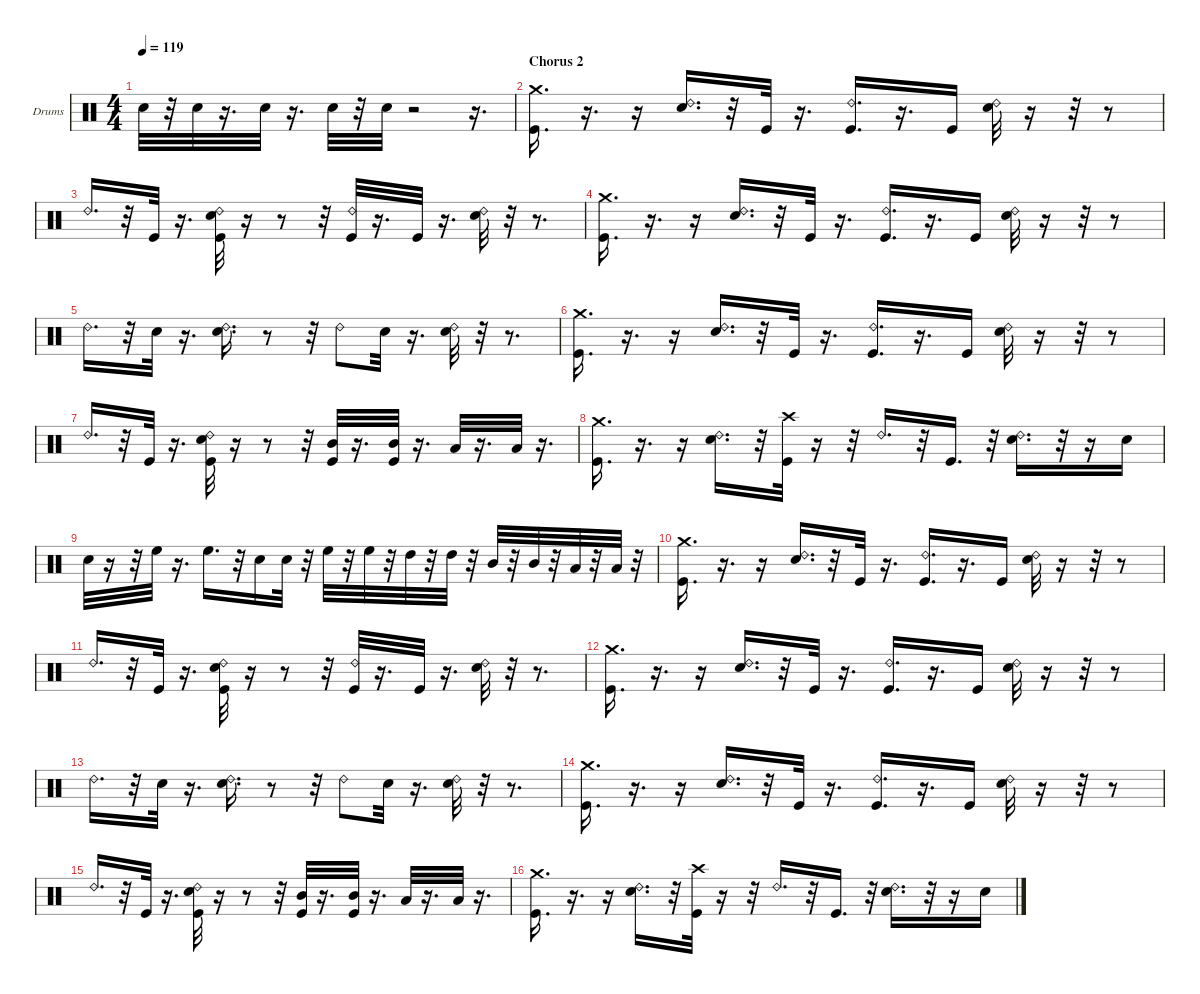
\hideDynamics
\bracketExtendMode groupsimilarinstruments
\firstSystemTrackNameOrientation horizontal
\otherSystemsTrackNameOrientation horizontal
\track ("Drums" "Drums") {instrument percussion}
\staff {score}
\articulation defaults
\ts (4 4)
\tempo 119
\clef neutral
\ks c "Snare (hit) 2".32{dy mf}
r.32 "Snare (hit) 2".32 r.16{d} "Snare (hit) 2".32 r.16{d} "Snare (hit) 2".32 r.32 "Snare (hit) 2".32 r.2 r.16{d} |
\section ("" "Chorus 2")
("Crash medium (hit)" "Kick (hit)").16{d} r.16{d} r.16 ("Snare (hit) 2" "Ride (bell) 2").16{d} r.32 "Kick (hit)".32 r.16{d} ("Ride (bell) 2" "Kick (hit)").16{d} r.16{d} "Kick (hit)".16 ("Snare (hit) 2" "Ride (bell) 2").32 r.16 r.32 r.8 |
"Ride (bell) 2".16{d} r.32 "Kick (hit)".32 r.16{d} ("Ride (bell) 2" "Kick (hit)" "Snare (hit) 2").32 r.16 r.8 r.32 ("Ride (bell) 2" "Kick (hit)").32 r.16{d} "Kick (hit)".32 r.16{d} ("Ride (bell) 2" "Snare (hit) 2").32 r.32 r.8{d} |
("Crash medium (hit)" "Kick (hit)").16{d} r.16{d} r.16 ("Snare (hit) 2" "Ride (bell) 2").16{d} r.32 "Kick (hit)".32 r.16{d} ("Ride (bell) 2" "Kick (hit)").16{d} r.16{d} "Kick (hit)".16 ("Snare (hit) 2" "Ride (bell) 2").32 r.16 r.32 r.8 |
"Ride (bell) 2".16{d} r.32 "Snare (hit) 2".32 r.16{d} ("Ride (bell) 2" "Snare (hit) 2").16{d} r.8 r.32 "Ride (bell) 2".8 "Snare (hit) 2".32 r.16{d} ("Ride (bell) 2" "Snare (hit) 2").32 r.32 r.8{d} |
("Crash medium (hit)" "Kick (hit)").16{d} r.16{d} r.16 ("Snare (hit) 2" "Ride (bell) 2").16{d} r.32 "Kick (hit)".32 r.16{d} ("Ride (bell) 2" "Kick (hit)").16{d} r.16{d} "Kick (hit)".16 ("Snare (hit) 2" "Ride (bell) 2").32 r.16 r.32 r.8 |
"Ride (bell) 2".16{d} r.32 "Kick (hit)".32 r.16{d} ("Ride (bell) 2" "Kick (hit)" "Snare (hit) 2").32 r.16 r.8 r.32 ("Kick (hit)" "Mid Tom (hit)").32 r.16{d} ("Kick (hit)" "Mid Tom (hit)").32 r.16{d} "Low Tom (hit)".32 r.16{d} "Low Tom (hit)".32 r.16{d} |
("Kick (hit)" "Crash medium (hit)").16{d} r.16{d} r.16 ("Snare (hit) 2" "Ride (bell) 2").16{d} r.32 ("Crash high (hit)" "Kick (hit)").32 r.16 r.32 "Ride (bell) 2".16{d} r.32 "Kick (hit)".16{d} r.32 ("Snare (hit) 2" "Ride (bell) 2").16{d} r.32 r.16 "Snare (hit) 2".16 |
"Snare (hit) 2".32 r.16 r.32 "High Floor Tom (hit)".32 r.16{d} "High Floor Tom (hit)".16{d} r.32 "Snare (hit) 2".16 "Snare (hit) 2".32 r.32 "High Floor Tom (hit)".32 r.32 "High Floor Tom (hit)".32 r.32 "High Tom (hit)".32 r.32 "High Tom (hit)".32 r.32 "Mid Tom (hit)".32 r.32 "Mid Tom (hit)".32 r.32 "Low Tom (hit)".32 r.32 "Low Tom (hit)".32 r.32 |
("Crash medium (hit)" "Kick (hit)").16{d} r.16{d} r.16 ("Snare (hit) 2" "Ride (bell) 2").16{d} r.32 "Kick (hit)".32 r.16{d} ("Ride (bell) 2" "Kick (hit)").16{d} r.16{d} "Kick (hit)".16 ("Snare (hit) 2" "Ride (bell) 2").32 r.16 r.32 r.8 |
"Ride (bell) 2".16{d} r.32 "Kick (hit)".32 r.16{d} ("Ride (bell) 2" "Kick (hit)" "Snare (hit) 2").32 r.16 r.8 r.32 ("Ride (bell) 2" "Kick (hit)").32 r.16{d} "Kick (hit)".32 r.16{d} ("Ride (bell) 2" "Snare (hit) 2").32 r.32 r.8{d} |
("Crash medium (hit)" "Kick (hit)").16{d} r.16{d} r.16 ("Snare (hit) 2" "Ride (bell) 2").16{d} r.32 "Kick (hit)".32 r.16{d} ("Ride (bell) 2" "Kick (hit)").16{d} r.16{d} "Kick (hit)".16 ("Snare (hit) 2" "Ride (bell) 2").32 r.16 r.32 r.8 |
"Ride (bell) 2".16{d} r.32 "Snare (hit) 2".32 r.16{d} ("Ride (bell) 2" "Snare (hit) 2").16{d} r.8 r.32 "Ride (bell) 2".8 "Snare (hit) 2".32 r.16{d} ("Ride (bell) 2" "Snare (hit) 2").32 r.32 r.8{d} |
("Crash medium (hit)" "Kick (hit)").16{d} r.16{d} r.16 ("Snare (hit) 2" "Ride (bell) 2").16{d} r.32 "Kick (hit)".32 r.16{d} ("Ride (bell) 2" "Kick (hit)").16{d} r.16{d} "Kick (hit)".16 ("Snare (hit) 2" "Ride (bell) 2").32 r.16 r.32 r.8 |
"Ride (bell) 2".16{d} r.32 "Kick (hit)".32 r.16{d} ("Ride (bell) 2" "Kick (hit)" "Snare (hit) 2").32 r.16 r.8 r.32 ("Kick (hit)" "Mid Tom (hit)").32 r.16{d} ("Kick (hit)" "Mid Tom (hit)").32 r.16{d} "Low Tom (hit)".32 r.16{d} "Low Tom (hit)".32 r.16{d} |
("Kick (hit)" "Crash medium (hit)").16{d} r.16{d} r.16 ("Snare (hit) 2" "Ride (bell) 2").16{d} r.32 ("Crash high (hit)" "Kick (hit)").32 r.16 r.32 "Ride (bell) 2".16{d} r.32 "Kick (hit)".16{d} r.32 ("Snare (hit) 2" "Ride (bell) 2").16{d} r.32 r.16 "Snare (hit) 2".16
